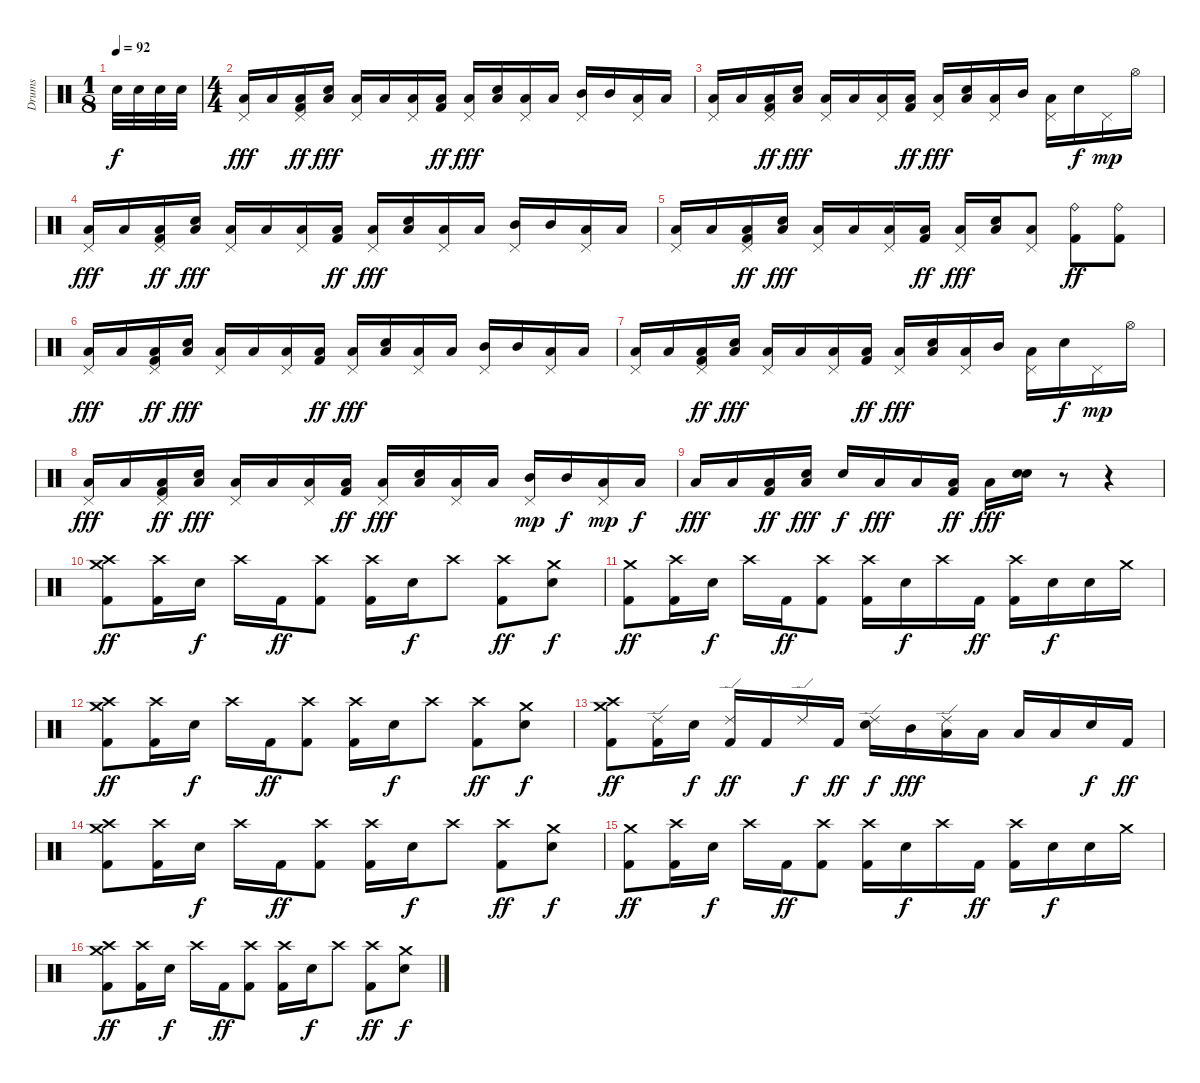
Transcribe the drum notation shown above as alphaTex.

\track ("Drums" "Drums") {instrument percussion}
\staff {score}
\articulation defaults
\ts (1 8)
\tempo 92
\clef neutral
\ks c "Electric Snare (hit)".32{dy f} "Electric Snare (hit)".32 "Electric Snare (hit)".32 "Electric Snare (hit)".32
|
\ts (4 4)
("Pedal Hi-Hat (hit)" "Low Floor Tom (hit)").16{dy fff} "Low Floor Tom (hit)".16 ("Pedal Hi-Hat (hit)" "Low Floor Tom (hit)" "Kick (hit) 2").16{dy ff} ("Electric Snare (hit)" "Low Floor Tom (hit)").16{dy fff} ("Pedal Hi-Hat (hit)" "Low Floor Tom (hit)").16 "Low Floor Tom (hit)".16 ("Pedal Hi-Hat (hit)" "Low Floor Tom (hit)").16 ("Low Floor Tom (hit)" "Kick (hit) 2").16{dy ff} ("Pedal Hi-Hat (hit)" "Low Floor Tom (hit)").16{dy fff} ("Electric Snare (hit)" "Low Floor Tom (hit)").16 ("Pedal Hi-Hat (hit)" "Low Floor Tom (hit)").16 "Low Floor Tom (hit)".16 ("Pedal Hi-Hat (hit)" "Mid Tom (hit)").16 "Mid Tom (hit)".16 ("Pedal Hi-Hat (hit)" "Low Tom (hit)").16 "Low Tom (hit)".16 |
("Pedal Hi-Hat (hit)" "Low Floor Tom (hit)").16 "Low Floor Tom (hit)".16 ("Pedal Hi-Hat (hit)" "Low Floor Tom (hit)" "Kick (hit) 2").16{dy ff} ("Electric Snare (hit)" "Low Floor Tom (hit)").16{dy fff} ("Pedal Hi-Hat (hit)" "Low Floor Tom (hit)").16 "Low Floor Tom (hit)".16 ("Pedal Hi-Hat (hit)" "Low Floor Tom (hit)").16 ("Low Floor Tom (hit)" "Kick (hit) 2").16{dy ff} ("Pedal Hi-Hat (hit)" "Low Floor Tom (hit)").16{dy fff} ("Electric Snare (hit)" "Low Floor Tom (hit)").16 ("Pedal Hi-Hat (hit)" "Low Floor Tom (hit)").16 "Mid Tom (hit)".16 ("Pedal Hi-Hat (hit)" "Low Tom (hit)").16 "Electric Snare (hit)".16{dy f} "Pedal Hi-Hat (hit)".16{dy mp} "Hi-Hat (open)".16 |
("Pedal Hi-Hat (hit)" "Low Floor Tom (hit)").16{dy fff} "Low Floor Tom (hit)".16 ("Pedal Hi-Hat (hit)" "Low Floor Tom (hit)" "Kick (hit) 2").16{dy ff} ("Electric Snare (hit)" "Low Floor Tom (hit)").16{dy fff} ("Pedal Hi-Hat (hit)" "Low Floor Tom (hit)").16 "Low Floor Tom (hit)".16 ("Pedal Hi-Hat (hit)" "Low Floor Tom (hit)").16 ("Low Floor Tom (hit)" "Kick (hit) 2").16{dy ff} ("Pedal Hi-Hat (hit)" "Low Floor Tom (hit)").16{dy fff} ("Electric Snare (hit)" "Low Floor Tom (hit)").16 ("Pedal Hi-Hat (hit)" "Low Floor Tom (hit)").16 "Low Floor Tom (hit)".16 ("Pedal Hi-Hat (hit)" "Mid Tom (hit)").16 "Mid Tom (hit)".16 ("Pedal Hi-Hat (hit)" "Low Tom (hit)").16 "Low Tom (hit)".16 |
("Pedal Hi-Hat (hit)" "Low Floor Tom (hit)").16 "Low Floor Tom (hit)".16 ("Pedal Hi-Hat (hit)" "Low Floor Tom (hit)" "Kick (hit) 2").16{dy ff} ("Electric Snare (hit)" "Low Floor Tom (hit)").16{dy fff} ("Pedal Hi-Hat (hit)" "Low Floor Tom (hit)").16 "Low Floor Tom (hit)".16 ("Pedal Hi-Hat (hit)" "Low Floor Tom (hit)").16 ("Low Floor Tom (hit)" "Kick (hit) 2").16{dy ff} ("Pedal Hi-Hat (hit)" "Low Floor Tom (hit)").16{dy fff} ("Electric Snare (hit)" "Low Floor Tom (hit)").16 ("Pedal Hi-Hat (hit)" "Low Floor Tom (hit)").8 ("Ride (bell)" "Kick (hit) 2").8{dy ff} ("Ride (bell)" "Kick (hit) 2").8 |
("Pedal Hi-Hat (hit)" "Low Floor Tom (hit)").16{dy fff} "Low Floor Tom (hit)".16 ("Pedal Hi-Hat (hit)" "Low Floor Tom (hit)" "Kick (hit) 2").16{dy ff} ("Electric Snare (hit)" "Low Floor Tom (hit)").16{dy fff} ("Pedal Hi-Hat (hit)" "Low Floor Tom (hit)").16 "Low Floor Tom (hit)".16 ("Pedal Hi-Hat (hit)" "Low Floor Tom (hit)").16 ("Low Floor Tom (hit)" "Kick (hit) 2").16{dy ff} ("Pedal Hi-Hat (hit)" "Low Floor Tom (hit)").16{dy fff} ("Electric Snare (hit)" "Low Floor Tom (hit)").16 ("Pedal Hi-Hat (hit)" "Low Floor Tom (hit)").16 "Low Floor Tom (hit)".16 ("Pedal Hi-Hat (hit)" "Mid Tom (hit)").16 "Mid Tom (hit)".16 ("Pedal Hi-Hat (hit)" "Low Tom (hit)").16 "Low Tom (hit)".16 |
("Pedal Hi-Hat (hit)" "Low Floor Tom (hit)").16 "Low Floor Tom (hit)".16 ("Pedal Hi-Hat (hit)" "Low Floor Tom (hit)" "Kick (hit) 2").16{dy ff} ("Electric Snare (hit)" "Low Floor Tom (hit)").16{dy fff} ("Pedal Hi-Hat (hit)" "Low Floor Tom (hit)").16 "Low Floor Tom (hit)".16 ("Pedal Hi-Hat (hit)" "Low Floor Tom (hit)").16 ("Low Floor Tom (hit)" "Kick (hit) 2").16{dy ff} ("Pedal Hi-Hat (hit)" "Low Floor Tom (hit)").16{dy fff} ("Electric Snare (hit)" "Low Floor Tom (hit)").16 ("Pedal Hi-Hat (hit)" "Low Floor Tom (hit)").16 "Mid Tom (hit)".16 ("Pedal Hi-Hat (hit)" "Low Tom (hit)").16 "Electric Snare (hit)".16{dy f} "Pedal Hi-Hat (hit)".16{dy mp} "Hi-Hat (open)".16 |
("Pedal Hi-Hat (hit)" "Low Floor Tom (hit)").16{dy fff} "Low Floor Tom (hit)".16 ("Pedal Hi-Hat (hit)" "Low Floor Tom (hit)" "Kick (hit) 2").16{dy ff} ("Electric Snare (hit)" "Low Floor Tom (hit)").16{dy fff} ("Pedal Hi-Hat (hit)" "Low Floor Tom (hit)").16 "Low Floor Tom (hit)".16 ("Pedal Hi-Hat (hit)" "Low Floor Tom (hit)").16 ("Low Floor Tom (hit)" "Kick (hit) 2").16{dy ff} ("Pedal Hi-Hat (hit)" "Low Floor Tom (hit)").16{dy fff} ("Electric Snare (hit)" "Low Floor Tom (hit)").16 ("Pedal Hi-Hat (hit)" "Low Floor Tom (hit)").16 "Low Floor Tom (hit)".16 ("Pedal Hi-Hat (hit)" "Mid Tom (hit)").16{dy mp} "Mid Tom (hit)".16{dy f} ("Pedal Hi-Hat (hit)" "Low Tom (hit)").16{dy mp} "Low Tom (hit)".16{dy f} |
"Low Floor Tom (hit)".16{dy fff} "Low Floor Tom (hit)".16 ("Low Floor Tom (hit)" "Kick (hit) 2").16{dy ff} ("Electric Snare (hit)" "Low Floor Tom (hit)").16{dy fff} "Electric Snare (hit)".16{dy f} "Low Floor Tom (hit)".16{dy fff} "Low Floor Tom (hit)".16 ("Low Floor Tom (hit)" "Kick (hit) 2").16{dy ff} "Low Floor Tom (hit)".16{dy fff} ("Electric Snare (hit)" "Electric Snare (hit)").16 r.8 r.4 |
("Crash medium (hit)" "Crash high (hit)" "Kick (hit) 2").8{dy ff} ("Crash high (hit)" "Kick (hit) 2").16 "Electric Snare (hit)".16{dy f} "Crash high (hit)".16 "Kick (hit) 2".16{dy ff} ("Crash high (hit)" "Kick (hit) 2").8 ("Crash high (hit)" "Kick (hit) 2").16 "Electric Snare (hit)".16{dy f} "Crash high (hit)".8 ("Crash high (hit)" "Kick (hit) 2").8{dy ff} ("Crash medium (hit)" "Electric Snare (hit)").8{dy f} |
("Crash medium (hit)" "Kick (hit) 2").8{dy ff} ("Crash high (hit)" "Kick (hit) 2").16 "Electric Snare (hit)".16{dy f} "Crash high (hit)".16 "Kick (hit) 2".16{dy ff} ("Crash high (hit)" "Kick (hit) 2").8 ("Crash high (hit)" "Kick (hit) 2").16 "Electric Snare (hit)".16{dy f} "Crash high (hit)".16 "Kick (hit) 2".16{dy ff} ("Crash high (hit)" "Kick (hit) 2").16 "Electric Snare (hit)".16{dy f} "Electric Snare (hit)".16 "Crash medium (hit)".16 |
("Crash medium (hit)" "Crash high (hit)" "Kick (hit) 2").8{dy ff} ("Crash high (hit)" "Kick (hit) 2").16 "Electric Snare (hit)".16{dy f} "Crash high (hit)".16 "Kick (hit) 2".16{dy ff} ("Crash high (hit)" "Kick (hit) 2").8 ("Crash high (hit)" "Kick (hit) 2").16 "Electric Snare (hit)".16{dy f} "Crash high (hit)".8 ("Crash high (hit)" "Kick (hit) 2").8{dy ff} ("Crash medium (hit)" "Electric Snare (hit)").8{dy f} |
("Crash medium (hit)" "Crash high (hit)" "Kick (hit) 2").8{dy ff} ("Ride (edge) 2" "Kick (hit) 2").16 "Electric Snare (hit)".16{dy f} ("Ride (edge) 2" "Kick (hit) 2").16{dy ff} "Kick (hit) 2".16 "Ride (edge) 2".16{dy f} "Kick (hit) 2".16{dy ff} ("Ride (edge) 2" "Electric Snare (hit)").16{dy f} "Mid Tom (hit)".16{dy fff} ("Ride (edge) 2" "Low Tom (hit)").16 "Low Tom (hit)".16 "Low Floor Tom (hit)".16 "Low Floor Tom (hit)".16 "Electric Snare (hit)".16{dy f} "Kick (hit) 2".16{dy ff} |
("Crash medium (hit)" "Crash high (hit)" "Kick (hit) 2").8 ("Crash high (hit)" "Kick (hit) 2").16 "Electric Snare (hit)".16{dy f} "Crash high (hit)".16 "Kick (hit) 2".16{dy ff} ("Crash high (hit)" "Kick (hit) 2").8 ("Crash high (hit)" "Kick (hit) 2").16 "Electric Snare (hit)".16{dy f} "Crash high (hit)".8 ("Crash high (hit)" "Kick (hit) 2").8{dy ff} ("Crash medium (hit)" "Electric Snare (hit)").8{dy f} |
("Crash medium (hit)" "Kick (hit) 2").8{dy ff} ("Crash high (hit)" "Kick (hit) 2").16 "Electric Snare (hit)".16{dy f} "Crash high (hit)".16 "Kick (hit) 2".16{dy ff} ("Crash high (hit)" "Kick (hit) 2").8 ("Crash high (hit)" "Kick (hit) 2").16 "Electric Snare (hit)".16{dy f} "Crash high (hit)".16 "Kick (hit) 2".16{dy ff} ("Crash high (hit)" "Kick (hit) 2").16 "Electric Snare (hit)".16{dy f} "Electric Snare (hit)".16 "Crash medium (hit)".16 |
("Crash medium (hit)" "Crash high (hit)" "Kick (hit) 2").8{dy ff} ("Crash high (hit)" "Kick (hit) 2").16 "Electric Snare (hit)".16{dy f} "Crash high (hit)".16 "Kick (hit) 2".16{dy ff} ("Crash high (hit)" "Kick (hit) 2").8 ("Crash high (hit)" "Kick (hit) 2").16 "Electric Snare (hit)".16{dy f} "Crash high (hit)".8 ("Crash high (hit)" "Kick (hit) 2").8{dy ff} ("Crash medium (hit)" "Electric Snare (hit)").8{dy f}
